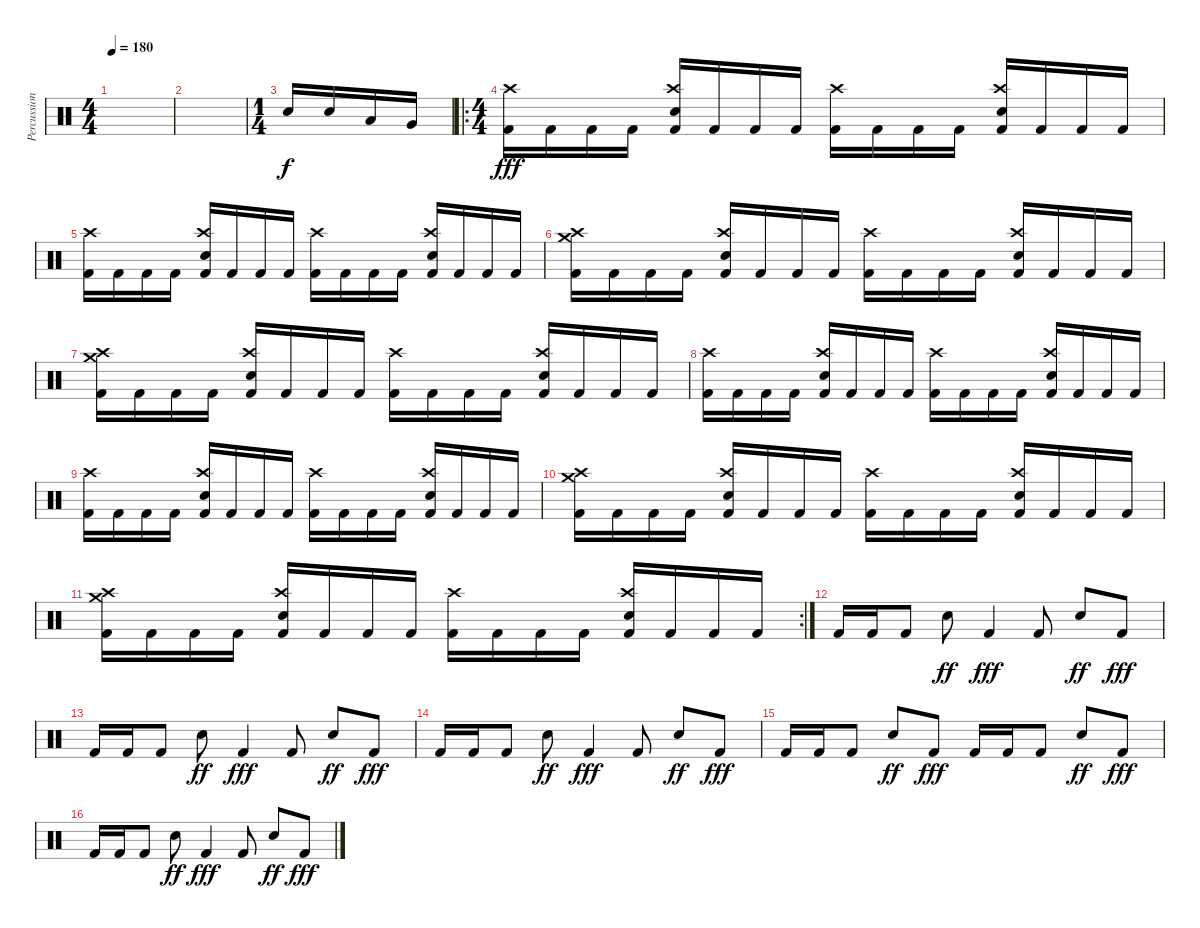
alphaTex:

\track ("Percussion (Francisco Izquierdo)" "Percussion") {instrument percussion}
\staff {score}
\articulation defaults
\ts (4 4)
\tempo 180
\clef neutral
\ks c
|
|
\ts (1 4)
"Electric Snare (hit)".16 "Electric Snare (hit)".16 "Low Tom (hit)".16 "Very Low Tom (hit)".16 |
\ro
\ts (4 4)
("Crash high (hit)" "Kick (hit) 2").16{dy fff} "Kick (hit) 2".16 "Kick (hit) 2".16 "Kick (hit) 2".16 ("Crash high (hit)" "Electric Snare (hit)" "Kick (hit) 2").16 "Kick (hit) 2".16 "Kick (hit) 2".16 "Kick (hit) 2".16 ("Crash high (hit)" "Kick (hit) 2").16 "Kick (hit) 2".16 "Kick (hit) 2".16 "Kick (hit) 2".16 ("Crash high (hit)" "Electric Snare (hit)" "Kick (hit) 2").16 "Kick (hit) 2".16 "Kick (hit) 2".16 "Kick (hit) 2".16 |
("Crash high (hit)" "Kick (hit) 2").16 "Kick (hit) 2".16 "Kick (hit) 2".16 "Kick (hit) 2".16 ("Crash high (hit)" "Electric Snare (hit)" "Kick (hit) 2").16 "Kick (hit) 2".16 "Kick (hit) 2".16 "Kick (hit) 2".16 ("Crash high (hit)" "Kick (hit) 2").16 "Kick (hit) 2".16 "Kick (hit) 2".16 "Kick (hit) 2".16 ("Crash high (hit)" "Electric Snare (hit)" "Kick (hit) 2").16 "Kick (hit) 2".16 "Kick (hit) 2".16 "Kick (hit) 2".16 |
("Crash high (hit)" "Crash medium (hit)" "Kick (hit) 2").16 "Kick (hit) 2".16 "Kick (hit) 2".16 "Kick (hit) 2".16 ("Crash high (hit)" "Electric Snare (hit)" "Kick (hit) 2").16 "Kick (hit) 2".16 "Kick (hit) 2".16 "Kick (hit) 2".16 ("Crash high (hit)" "Kick (hit) 2").16 "Kick (hit) 2".16 "Kick (hit) 2".16 "Kick (hit) 2".16 ("Crash high (hit)" "Electric Snare (hit)" "Kick (hit) 2").16 "Kick (hit) 2".16 "Kick (hit) 2".16 "Kick (hit) 2".16 |
("Crash high (hit)" "Crash medium (hit)" "Kick (hit) 2").16 "Kick (hit) 2".16 "Kick (hit) 2".16 "Kick (hit) 2".16 ("Crash high (hit)" "Electric Snare (hit)" "Kick (hit) 2").16 "Kick (hit) 2".16 "Kick (hit) 2".16 "Kick (hit) 2".16 ("Crash high (hit)" "Kick (hit) 2").16 "Kick (hit) 2".16 "Kick (hit) 2".16 "Kick (hit) 2".16 ("Crash high (hit)" "Electric Snare (hit)" "Kick (hit) 2").16 "Kick (hit) 2".16 "Kick (hit) 2".16 "Kick (hit) 2".16 |
("Crash high (hit)" "Kick (hit) 2").16 "Kick (hit) 2".16 "Kick (hit) 2".16 "Kick (hit) 2".16 ("Crash high (hit)" "Electric Snare (hit)" "Kick (hit) 2").16 "Kick (hit) 2".16 "Kick (hit) 2".16 "Kick (hit) 2".16 ("Crash high (hit)" "Kick (hit) 2").16 "Kick (hit) 2".16 "Kick (hit) 2".16 "Kick (hit) 2".16 ("Crash high (hit)" "Electric Snare (hit)" "Kick (hit) 2").16 "Kick (hit) 2".16 "Kick (hit) 2".16 "Kick (hit) 2".16 |
("Crash high (hit)" "Kick (hit) 2").16 "Kick (hit) 2".16 "Kick (hit) 2".16 "Kick (hit) 2".16 ("Crash high (hit)" "Electric Snare (hit)" "Kick (hit) 2").16 "Kick (hit) 2".16 "Kick (hit) 2".16 "Kick (hit) 2".16 ("Crash high (hit)" "Kick (hit) 2").16 "Kick (hit) 2".16 "Kick (hit) 2".16 "Kick (hit) 2".16 ("Crash high (hit)" "Electric Snare (hit)" "Kick (hit) 2").16 "Kick (hit) 2".16 "Kick (hit) 2".16 "Kick (hit) 2".16 |
("Crash high (hit)" "Crash medium (hit)" "Kick (hit) 2").16 "Kick (hit) 2".16 "Kick (hit) 2".16 "Kick (hit) 2".16 ("Crash high (hit)" "Electric Snare (hit)" "Kick (hit) 2").16 "Kick (hit) 2".16 "Kick (hit) 2".16 "Kick (hit) 2".16 ("Crash high (hit)" "Kick (hit) 2").16 "Kick (hit) 2".16 "Kick (hit) 2".16 "Kick (hit) 2".16 ("Crash high (hit)" "Electric Snare (hit)" "Kick (hit) 2").16 "Kick (hit) 2".16 "Kick (hit) 2".16 "Kick (hit) 2".16 |
\rc 2
("Crash high (hit)" "Crash medium (hit)" "Kick (hit) 2").16 "Kick (hit) 2".16 "Kick (hit) 2".16 "Kick (hit) 2".16 ("Crash high (hit)" "Electric Snare (hit)" "Kick (hit) 2").16 "Kick (hit) 2".16 "Kick (hit) 2".16 "Kick (hit) 2".16 ("Crash high (hit)" "Kick (hit) 2").16 "Kick (hit) 2".16 "Kick (hit) 2".16 "Kick (hit) 2".16 ("Crash high (hit)" "Electric Snare (hit)" "Kick (hit) 2").16 "Kick (hit) 2".16 "Kick (hit) 2".16 "Kick (hit) 2".16 |
"Kick (hit) 2".16 "Kick (hit) 2".16 "Kick (hit) 2".8 "Electric Snare (hit)".8{dy ff} "Kick (hit) 2".4{dy fff} "Kick (hit) 2".8 "Electric Snare (hit)".8{dy ff} "Kick (hit) 2".8{dy fff} |
"Kick (hit) 2".16 "Kick (hit) 2".16 "Kick (hit) 2".8 "Electric Snare (hit)".8{dy ff} "Kick (hit) 2".4{dy fff} "Kick (hit) 2".8 "Electric Snare (hit)".8{dy ff} "Kick (hit) 2".8{dy fff} |
"Kick (hit) 2".16 "Kick (hit) 2".16 "Kick (hit) 2".8 "Electric Snare (hit)".8{dy ff} "Kick (hit) 2".4{dy fff} "Kick (hit) 2".8 "Electric Snare (hit)".8{dy ff} "Kick (hit) 2".8{dy fff} |
"Kick (hit) 2".16 "Kick (hit) 2".16 "Kick (hit) 2".8 "Electric Snare (hit)".8{dy ff} "Kick (hit) 2".8{dy fff} "Kick (hit) 2".16 "Kick (hit) 2".16 "Kick (hit) 2".8 "Electric Snare (hit)".8{dy ff} "Kick (hit) 2".8{dy fff} |
"Kick (hit) 2".16 "Kick (hit) 2".16 "Kick (hit) 2".8 "Electric Snare (hit)".8{dy ff} "Kick (hit) 2".4{dy fff} "Kick (hit) 2".8 "Electric Snare (hit)".8{dy ff} "Kick (hit) 2".8{dy fff}
